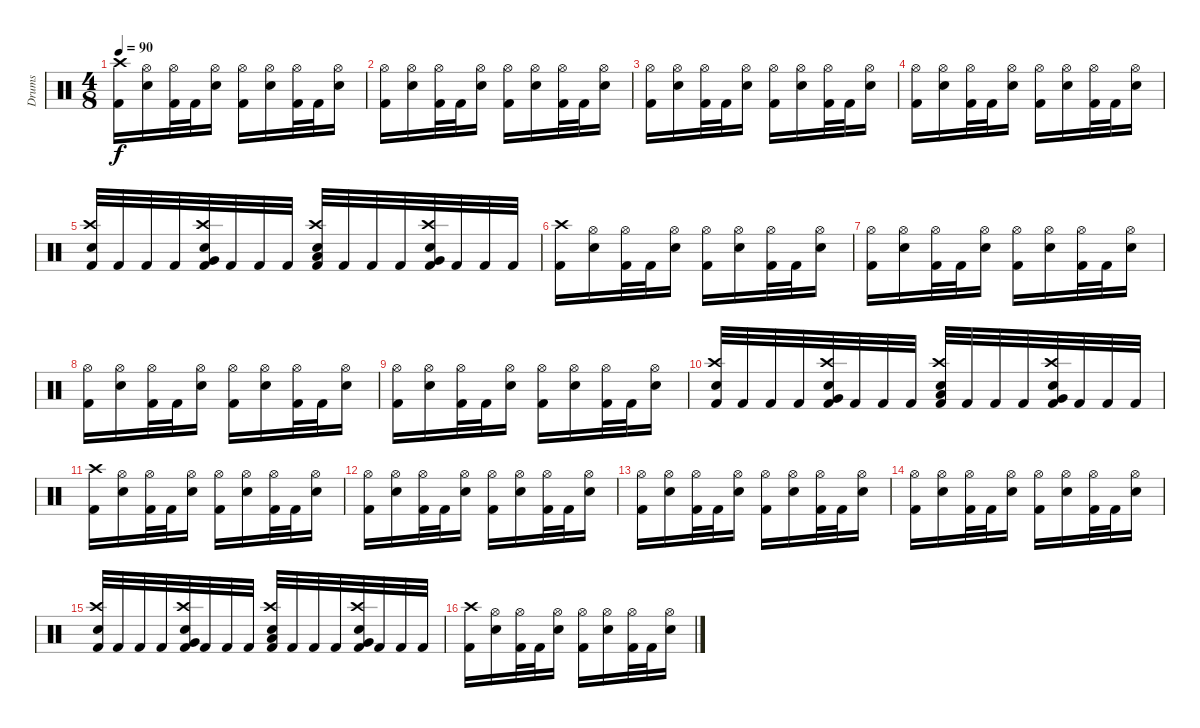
\track ("Drums" "Drums") {instrument percussion}
\staff {score}
\articulation defaults
\ts (4 8)
\tempo 90
\clef neutral
\ks c
("Kick (hit) 2" "Crash high (hit)").16{dy f} ("Electric Snare (hit)" "Hi-Hat (open)").16 ("Kick (hit) 2" "Hi-Hat (open)").32 "Kick (hit) 2".32 ("Electric Snare (hit)" "Hi-Hat (open)").16 ("Kick (hit) 2" "Hi-Hat (open)").16 ("Electric Snare (hit)" "Hi-Hat (open)").16 ("Kick (hit) 2" "Hi-Hat (open)").32 "Kick (hit) 2".32 ("Electric Snare (hit)" "Hi-Hat (open)").16 |
("Kick (hit) 2" "Hi-Hat (open)").16 ("Electric Snare (hit)" "Hi-Hat (open)").16 ("Kick (hit) 2" "Hi-Hat (open)").32 "Kick (hit) 2".32 ("Electric Snare (hit)" "Hi-Hat (open)").16 ("Kick (hit) 2" "Hi-Hat (open)").16 ("Electric Snare (hit)" "Hi-Hat (open)").16 ("Kick (hit) 2" "Hi-Hat (open)").32 "Kick (hit) 2".32 ("Electric Snare (hit)" "Hi-Hat (open)").16 |
("Kick (hit) 2" "Hi-Hat (open)").16 ("Electric Snare (hit)" "Hi-Hat (open)").16 ("Kick (hit) 2" "Hi-Hat (open)").32 "Kick (hit) 2".32 ("Electric Snare (hit)" "Hi-Hat (open)").16 ("Kick (hit) 2" "Hi-Hat (open)").16 ("Electric Snare (hit)" "Hi-Hat (open)").16 ("Kick (hit) 2" "Hi-Hat (open)").32 "Kick (hit) 2".32 ("Electric Snare (hit)" "Hi-Hat (open)").16 |
("Kick (hit) 2" "Hi-Hat (open)").16 ("Electric Snare (hit)" "Hi-Hat (open)").16 ("Kick (hit) 2" "Hi-Hat (open)").32 "Kick (hit) 2".32 ("Electric Snare (hit)" "Hi-Hat (open)").16 ("Kick (hit) 2" "Hi-Hat (open)").16 ("Electric Snare (hit)" "Hi-Hat (open)").16 ("Kick (hit) 2" "Hi-Hat (open)").32 "Kick (hit) 2".32 ("Electric Snare (hit)" "Hi-Hat (open)").16 |
("Kick (hit) 2" "Electric Snare (hit)" "Crash high (hit)").32 "Kick (hit) 2".32 "Kick (hit) 2".32 "Kick (hit) 2".32 ("Electric Snare (hit)" "Very Low Tom (hit)" "Kick (hit) 2" "Crash high (hit)").32 "Kick (hit) 2".32 "Kick (hit) 2".32 "Kick (hit) 2".32 ("Electric Snare (hit)" "Low Floor Tom (hit)" "Kick (hit) 2" "Crash high (hit)").32 "Kick (hit) 2".32 "Kick (hit) 2".32 "Kick (hit) 2".32 ("Electric Snare (hit)" "Very Low Tom (hit)" "Kick (hit) 2" "Crash high (hit)").32 "Kick (hit) 2".32 "Kick (hit) 2".32 "Kick (hit) 2".32 |
("Kick (hit) 2" "Crash high (hit)").16 ("Electric Snare (hit)" "Hi-Hat (open)").16 ("Kick (hit) 2" "Hi-Hat (open)").32 "Kick (hit) 2".32 ("Electric Snare (hit)" "Hi-Hat (open)").16 ("Kick (hit) 2" "Hi-Hat (open)").16 ("Electric Snare (hit)" "Hi-Hat (open)").16 ("Kick (hit) 2" "Hi-Hat (open)").32 "Kick (hit) 2".32 ("Electric Snare (hit)" "Hi-Hat (open)").16 |
("Kick (hit) 2" "Hi-Hat (open)").16 ("Electric Snare (hit)" "Hi-Hat (open)").16 ("Kick (hit) 2" "Hi-Hat (open)").32 "Kick (hit) 2".32 ("Electric Snare (hit)" "Hi-Hat (open)").16 ("Kick (hit) 2" "Hi-Hat (open)").16 ("Electric Snare (hit)" "Hi-Hat (open)").16 ("Kick (hit) 2" "Hi-Hat (open)").32 "Kick (hit) 2".32 ("Electric Snare (hit)" "Hi-Hat (open)").16 |
("Kick (hit) 2" "Hi-Hat (open)").16 ("Electric Snare (hit)" "Hi-Hat (open)").16 ("Kick (hit) 2" "Hi-Hat (open)").32 "Kick (hit) 2".32 ("Electric Snare (hit)" "Hi-Hat (open)").16 ("Kick (hit) 2" "Hi-Hat (open)").16 ("Electric Snare (hit)" "Hi-Hat (open)").16 ("Kick (hit) 2" "Hi-Hat (open)").32 "Kick (hit) 2".32 ("Electric Snare (hit)" "Hi-Hat (open)").16 |
("Kick (hit) 2" "Hi-Hat (open)").16 ("Electric Snare (hit)" "Hi-Hat (open)").16 ("Kick (hit) 2" "Hi-Hat (open)").32 "Kick (hit) 2".32 ("Electric Snare (hit)" "Hi-Hat (open)").16 ("Kick (hit) 2" "Hi-Hat (open)").16 ("Electric Snare (hit)" "Hi-Hat (open)").16 ("Kick (hit) 2" "Hi-Hat (open)").32 "Kick (hit) 2".32 ("Electric Snare (hit)" "Hi-Hat (open)").16 |
("Kick (hit) 2" "Electric Snare (hit)" "Crash high (hit)").32 "Kick (hit) 2".32 "Kick (hit) 2".32 "Kick (hit) 2".32 ("Electric Snare (hit)" "Very Low Tom (hit)" "Kick (hit) 2" "Crash high (hit)").32 "Kick (hit) 2".32 "Kick (hit) 2".32 "Kick (hit) 2".32 ("Electric Snare (hit)" "Low Floor Tom (hit)" "Kick (hit) 2" "Crash high (hit)").32 "Kick (hit) 2".32 "Kick (hit) 2".32 "Kick (hit) 2".32 ("Electric Snare (hit)" "Very Low Tom (hit)" "Kick (hit) 2" "Crash high (hit)").32 "Kick (hit) 2".32 "Kick (hit) 2".32 "Kick (hit) 2".32 |
("Kick (hit) 2" "Crash high (hit)").16 ("Electric Snare (hit)" "Hi-Hat (open)").16 ("Kick (hit) 2" "Hi-Hat (open)").32 "Kick (hit) 2".32 ("Electric Snare (hit)" "Hi-Hat (open)").16 ("Kick (hit) 2" "Hi-Hat (open)").16 ("Electric Snare (hit)" "Hi-Hat (open)").16 ("Kick (hit) 2" "Hi-Hat (open)").32 "Kick (hit) 2".32 ("Electric Snare (hit)" "Hi-Hat (open)").16 |
("Kick (hit) 2" "Hi-Hat (open)").16 ("Electric Snare (hit)" "Hi-Hat (open)").16 ("Kick (hit) 2" "Hi-Hat (open)").32 "Kick (hit) 2".32 ("Electric Snare (hit)" "Hi-Hat (open)").16 ("Kick (hit) 2" "Hi-Hat (open)").16 ("Electric Snare (hit)" "Hi-Hat (open)").16 ("Kick (hit) 2" "Hi-Hat (open)").32 "Kick (hit) 2".32 ("Electric Snare (hit)" "Hi-Hat (open)").16 |
("Kick (hit) 2" "Hi-Hat (open)").16 ("Electric Snare (hit)" "Hi-Hat (open)").16 ("Kick (hit) 2" "Hi-Hat (open)").32 "Kick (hit) 2".32 ("Electric Snare (hit)" "Hi-Hat (open)").16 ("Kick (hit) 2" "Hi-Hat (open)").16 ("Electric Snare (hit)" "Hi-Hat (open)").16 ("Kick (hit) 2" "Hi-Hat (open)").32 "Kick (hit) 2".32 ("Electric Snare (hit)" "Hi-Hat (open)").16 |
("Kick (hit) 2" "Hi-Hat (open)").16 ("Electric Snare (hit)" "Hi-Hat (open)").16 ("Kick (hit) 2" "Hi-Hat (open)").32 "Kick (hit) 2".32 ("Electric Snare (hit)" "Hi-Hat (open)").16 ("Kick (hit) 2" "Hi-Hat (open)").16 ("Electric Snare (hit)" "Hi-Hat (open)").16 ("Kick (hit) 2" "Hi-Hat (open)").32 "Kick (hit) 2".32 ("Electric Snare (hit)" "Hi-Hat (open)").16 |
("Kick (hit) 2" "Electric Snare (hit)" "Crash high (hit)").32 "Kick (hit) 2".32 "Kick (hit) 2".32 "Kick (hit) 2".32 ("Electric Snare (hit)" "Very Low Tom (hit)" "Kick (hit) 2" "Crash high (hit)").32 "Kick (hit) 2".32 "Kick (hit) 2".32 "Kick (hit) 2".32 ("Electric Snare (hit)" "Low Floor Tom (hit)" "Kick (hit) 2" "Crash high (hit)").32 "Kick (hit) 2".32 "Kick (hit) 2".32 "Kick (hit) 2".32 ("Electric Snare (hit)" "Very Low Tom (hit)" "Kick (hit) 2" "Crash high (hit)").32 "Kick (hit) 2".32 "Kick (hit) 2".32 "Kick (hit) 2".32 |
("Kick (hit) 2" "Crash high (hit)").16 ("Electric Snare (hit)" "Hi-Hat (open)").16 ("Kick (hit) 2" "Hi-Hat (open)").32 "Kick (hit) 2".32 ("Electric Snare (hit)" "Hi-Hat (open)").16 ("Kick (hit) 2" "Hi-Hat (open)").16 ("Electric Snare (hit)" "Hi-Hat (open)").16 ("Kick (hit) 2" "Hi-Hat (open)").32 "Kick (hit) 2".32 ("Electric Snare (hit)" "Hi-Hat (open)").16
